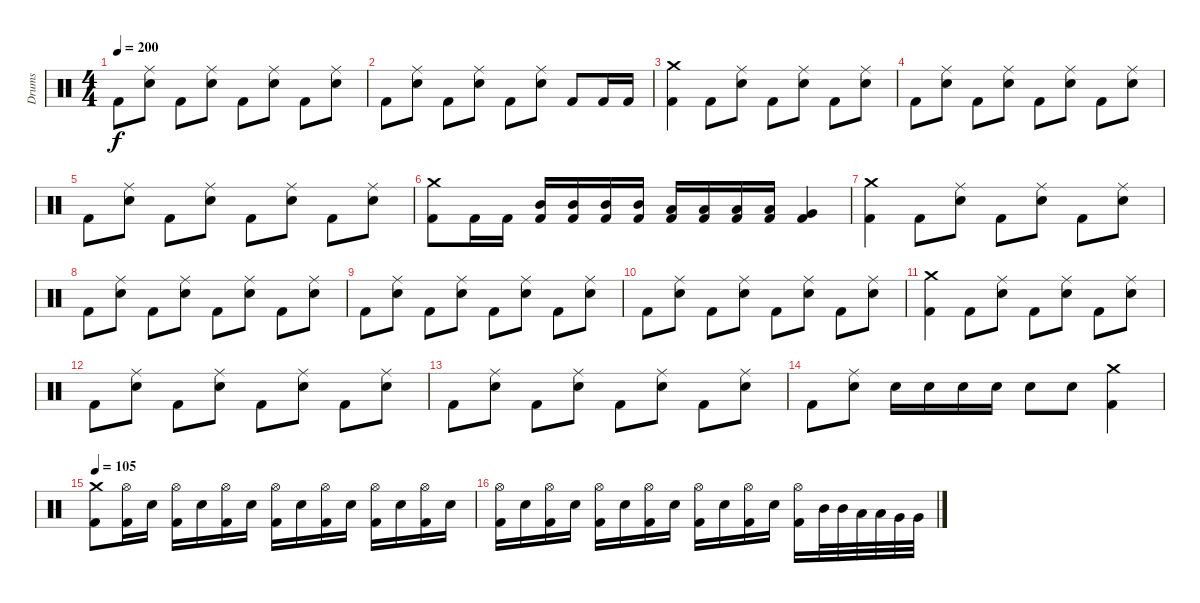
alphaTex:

\track ("Drums" "Drums") {instrument percussion}
\staff {score}
\articulation defaults
\ts (4 4)
\tempo 200
\clef neutral
\ks c "Kick (hit) 2".8{dy f}
("Ride (middle)" "Electric Snare (hit)").8 "Kick (hit) 2".8 ("Ride (middle)" "Electric Snare (hit)").8 "Kick (hit) 2".8 ("Ride (middle)" "Electric Snare (hit)").8 "Kick (hit) 2".8 ("Ride (middle)" "Electric Snare (hit)").8 |
"Kick (hit) 2".8 ("Ride (middle)" "Electric Snare (hit)").8 "Kick (hit) 2".8 ("Ride (middle)" "Electric Snare (hit)").8 "Kick (hit) 2".8 ("Ride (middle)" "Electric Snare (hit)").8 "Kick (hit) 2".8 "Kick (hit) 2".16 "Kick (hit) 2".16 |
("Crash medium (hit)" "Kick (hit) 2").4 "Kick (hit) 2".8 ("Ride (middle)" "Electric Snare (hit)").8 "Kick (hit) 2".8 ("Ride (middle)" "Electric Snare (hit)").8 "Kick (hit) 2".8 ("Ride (middle)" "Electric Snare (hit)").8 |
"Kick (hit) 2".8 ("Ride (middle)" "Electric Snare (hit)").8 "Kick (hit) 2".8 ("Ride (middle)" "Electric Snare (hit)").8 "Kick (hit) 2".8 ("Ride (middle)" "Electric Snare (hit)").8 "Kick (hit) 2".8 ("Ride (middle)" "Electric Snare (hit)").8 |
"Kick (hit) 2".8 ("Ride (middle)" "Electric Snare (hit)").8 "Kick (hit) 2".8 ("Ride (middle)" "Electric Snare (hit)").8 "Kick (hit) 2".8 ("Ride (middle)" "Electric Snare (hit)").8 "Kick (hit) 2".8 ("Ride (middle)" "Electric Snare (hit)").8 |
("Crash medium (hit)" "Kick (hit) 2").8 "Kick (hit) 2".16 "Kick (hit) 2".16 ("Mid Tom (hit)" "Kick (hit) 2").16 ("Mid Tom (hit)" "Kick (hit) 2").16 ("Mid Tom (hit)" "Kick (hit) 2").16 ("Mid Tom (hit)" "Kick (hit) 2").16 ("Low Tom (hit)" "Kick (hit) 2").16 ("Low Tom (hit)" "Kick (hit) 2").16 ("Low Tom (hit)" "Kick (hit) 2").16 ("Low Tom (hit)" "Kick (hit) 2").16 ("Very Low Tom (hit)" "Kick (hit) 2").4 |
("Crash medium (hit)" "Kick (hit) 2").4 "Kick (hit) 2".8 ("Ride (middle)" "Electric Snare (hit)").8 "Kick (hit) 2".8 ("Ride (middle)" "Electric Snare (hit)").8 "Kick (hit) 2".8 ("Ride (middle)" "Electric Snare (hit)").8 |
"Kick (hit) 2".8 ("Ride (middle)" "Electric Snare (hit)").8 "Kick (hit) 2".8 ("Ride (middle)" "Electric Snare (hit)").8 "Kick (hit) 2".8 ("Ride (middle)" "Electric Snare (hit)").8 "Kick (hit) 2".8 ("Ride (middle)" "Electric Snare (hit)").8 |
"Kick (hit) 2".8 ("Ride (middle)" "Electric Snare (hit)").8 "Kick (hit) 2".8 ("Ride (middle)" "Electric Snare (hit)").8 "Kick (hit) 2".8 ("Ride (middle)" "Electric Snare (hit)").8 "Kick (hit) 2".8 ("Ride (middle)" "Electric Snare (hit)").8 |
"Kick (hit) 2".8 ("Ride (middle)" "Electric Snare (hit)").8 "Kick (hit) 2".8 ("Ride (middle)" "Electric Snare (hit)").8 "Kick (hit) 2".8 ("Ride (middle)" "Electric Snare (hit)").8 "Kick (hit) 2".8 ("Ride (middle)" "Electric Snare (hit)").8 |
("Crash medium (hit)" "Kick (hit) 2").4 "Kick (hit) 2".8 ("Ride (middle)" "Electric Snare (hit)").8 "Kick (hit) 2".8 ("Ride (middle)" "Electric Snare (hit)").8 "Kick (hit) 2".8 ("Ride (middle)" "Electric Snare (hit)").8 |
"Kick (hit) 2".8 ("Ride (middle)" "Electric Snare (hit)").8 "Kick (hit) 2".8 ("Ride (middle)" "Electric Snare (hit)").8 "Kick (hit) 2".8 ("Ride (middle)" "Electric Snare (hit)").8 "Kick (hit) 2".8 ("Ride (middle)" "Electric Snare (hit)").8 |
"Kick (hit) 2".8 ("Ride (middle)" "Electric Snare (hit)").8 "Kick (hit) 2".8 ("Ride (middle)" "Electric Snare (hit)").8 "Kick (hit) 2".8 ("Ride (middle)" "Electric Snare (hit)").8 "Kick (hit) 2".8 ("Ride (middle)" "Electric Snare (hit)").8 |
"Kick (hit) 2".8 ("Ride (middle)" "Electric Snare (hit)").8 "Electric Snare (hit)".16 "Electric Snare (hit)".16 "Electric Snare (hit)".16 "Electric Snare (hit)".16 "Electric Snare (hit)".8 "Electric Snare (hit)".8 ("Crash medium (hit)" "Kick (hit) 2").4 |
\section ("" "")
\tempo 105
("Crash medium (hit)" "Kick (hit) 2").8 ("Hi-Hat (open)" "Kick (hit) 2").16 "Electric Snare (hit)".16 ("Hi-Hat (open)" "Kick (hit) 2").16 "Electric Snare (hit)".16 ("Hi-Hat (open)" "Kick (hit) 2").16 "Electric Snare (hit)".16 ("Hi-Hat (open)" "Kick (hit) 2").16 "Electric Snare (hit)".16 ("Hi-Hat (open)" "Kick (hit) 2").16 "Electric Snare (hit)".16 ("Hi-Hat (open)" "Kick (hit) 2").16 "Electric Snare (hit)".16 ("Hi-Hat (open)" "Kick (hit) 2").16 "Electric Snare (hit)".16 |
("Hi-Hat (open)" "Kick (hit) 2").16 "Electric Snare (hit)".16 ("Hi-Hat (open)" "Kick (hit) 2").16 "Electric Snare (hit)".16 ("Hi-Hat (open)" "Kick (hit) 2").16 "Electric Snare (hit)".16 ("Hi-Hat (open)" "Kick (hit) 2").16 "Electric Snare (hit)".16 ("Hi-Hat (open)" "Kick (hit) 2").16 "Electric Snare (hit)".16 ("Hi-Hat (open)" "Kick (hit) 2").16 "Electric Snare (hit)".16 ("Hi-Hat (open)" "Kick (hit) 2").16 "Mid Tom (hit)".32 "Mid Tom (hit)".32 "Low Tom (hit)".32 "Low Tom (hit)".32 "Very Low Tom (hit)".32 "Very Low Tom (hit)".32
